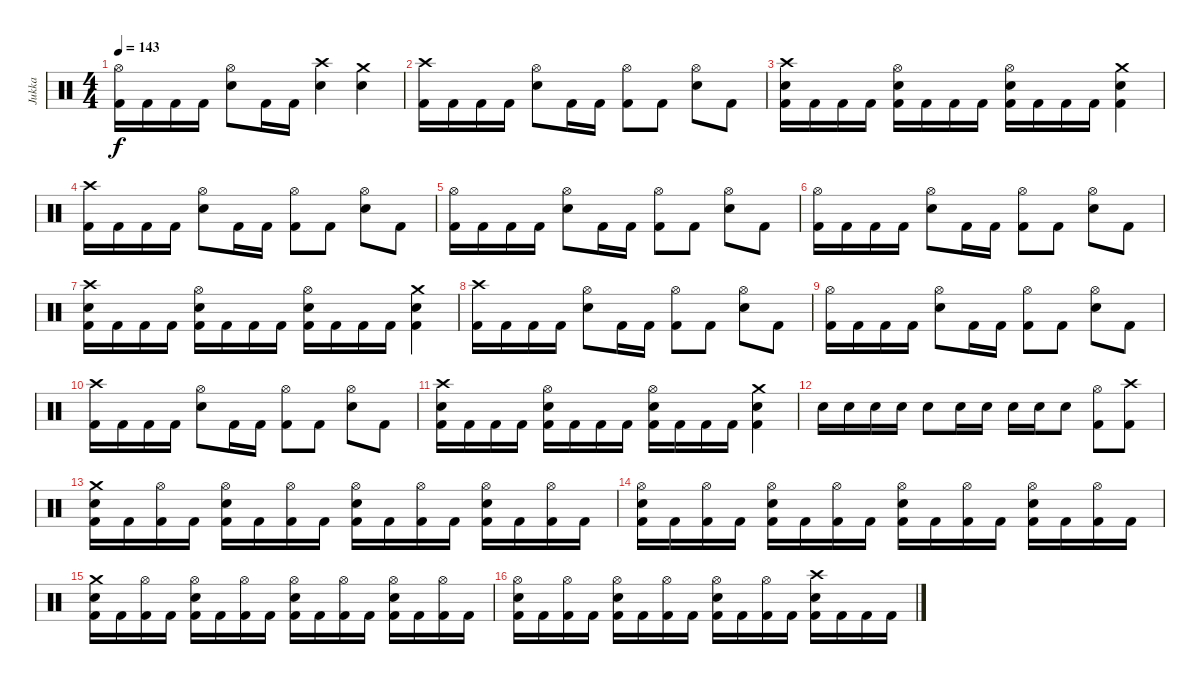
\track ("Jukka" "Jukka") {instrument percussion}
\staff {score}
\articulation defaults
\ts (4 4)
\tempo 143
\clef neutral
\ks c
("Hi-Hat (open)" "Kick (hit) 2").16{dy f} "Kick (hit) 2".16 "Kick (hit) 2".16 "Kick (hit) 2".16 ("Hi-Hat (open)" "Electric Snare (hit)").8 "Kick (hit) 2".16 "Kick (hit) 2".16 ("Crash high (hit)" "Electric Snare (hit)").4 ("Crash medium (hit)" "Electric Snare (hit)").4 |
("Crash high (hit)" "Kick (hit) 2").16 "Kick (hit) 2".16 "Kick (hit) 2".16 "Kick (hit) 2".16 ("Hi-Hat (open)" "Electric Snare (hit)").8 "Kick (hit) 2".16 "Kick (hit) 2".16 ("Hi-Hat (open)" "Kick (hit) 2").8 "Kick (hit) 2".8 ("Hi-Hat (open)" "Electric Snare (hit)").8 "Kick (hit) 2".8 |
("Crash high (hit)" "Electric Snare (hit)" "Kick (hit) 2").16 "Kick (hit) 2".16 "Kick (hit) 2".16 "Kick (hit) 2".16 ("Hi-Hat (open)" "Electric Snare (hit)" "Kick (hit) 2").16 "Kick (hit) 2".16 "Kick (hit) 2".16 "Kick (hit) 2".16 ("Hi-Hat (open)" "Electric Snare (hit)" "Kick (hit) 2").16 "Kick (hit) 2".16 "Kick (hit) 2".16 "Kick (hit) 2".16 ("Crash medium (hit)" "Electric Snare (hit)" "Kick (hit) 2").4 |
("Crash high (hit)" "Kick (hit) 2").16 "Kick (hit) 2".16 "Kick (hit) 2".16 "Kick (hit) 2".16 ("Hi-Hat (open)" "Electric Snare (hit)").8 "Kick (hit) 2".16 "Kick (hit) 2".16 ("Hi-Hat (open)" "Kick (hit) 2").8 "Kick (hit) 2".8 ("Hi-Hat (open)" "Electric Snare (hit)").8 "Kick (hit) 2".8 |
("Hi-Hat (open)" "Kick (hit) 2").16 "Kick (hit) 2".16 "Kick (hit) 2".16 "Kick (hit) 2".16 ("Hi-Hat (open)" "Electric Snare (hit)").8 "Kick (hit) 2".16 "Kick (hit) 2".16 ("Hi-Hat (open)" "Kick (hit) 2").8 "Kick (hit) 2".8 ("Hi-Hat (open)" "Electric Snare (hit)").8 "Kick (hit) 2".8 |
("Hi-Hat (open)" "Kick (hit) 2").16 "Kick (hit) 2".16 "Kick (hit) 2".16 "Kick (hit) 2".16 ("Hi-Hat (open)" "Electric Snare (hit)").8 "Kick (hit) 2".16 "Kick (hit) 2".16 ("Hi-Hat (open)" "Kick (hit) 2").8 "Kick (hit) 2".8 ("Hi-Hat (open)" "Electric Snare (hit)").8 "Kick (hit) 2".8 |
("Crash high (hit)" "Electric Snare (hit)" "Kick (hit) 2").16 "Kick (hit) 2".16 "Kick (hit) 2".16 "Kick (hit) 2".16 ("Hi-Hat (open)" "Electric Snare (hit)" "Kick (hit) 2").16 "Kick (hit) 2".16 "Kick (hit) 2".16 "Kick (hit) 2".16 ("Hi-Hat (open)" "Electric Snare (hit)" "Kick (hit) 2").16 "Kick (hit) 2".16 "Kick (hit) 2".16 "Kick (hit) 2".16 ("Crash medium (hit)" "Electric Snare (hit)" "Kick (hit) 2").4 |
("Crash high (hit)" "Kick (hit) 2").16 "Kick (hit) 2".16 "Kick (hit) 2".16 "Kick (hit) 2".16 ("Hi-Hat (open)" "Electric Snare (hit)").8 "Kick (hit) 2".16 "Kick (hit) 2".16 ("Hi-Hat (open)" "Kick (hit) 2").8 "Kick (hit) 2".8 ("Hi-Hat (open)" "Electric Snare (hit)").8 "Kick (hit) 2".8 |
("Hi-Hat (open)" "Kick (hit) 2").16 "Kick (hit) 2".16 "Kick (hit) 2".16 "Kick (hit) 2".16 ("Hi-Hat (open)" "Electric Snare (hit)").8 "Kick (hit) 2".16 "Kick (hit) 2".16 ("Hi-Hat (open)" "Kick (hit) 2").8 "Kick (hit) 2".8 ("Hi-Hat (open)" "Electric Snare (hit)").8 "Kick (hit) 2".8 |
("Crash high (hit)" "Kick (hit) 2").16 "Kick (hit) 2".16 "Kick (hit) 2".16 "Kick (hit) 2".16 ("Hi-Hat (open)" "Electric Snare (hit)").8 "Kick (hit) 2".16 "Kick (hit) 2".16 ("Hi-Hat (open)" "Kick (hit) 2").8 "Kick (hit) 2".8 ("Hi-Hat (open)" "Electric Snare (hit)").8 "Kick (hit) 2".8 |
("Crash high (hit)" "Electric Snare (hit)" "Kick (hit) 2").16 "Kick (hit) 2".16 "Kick (hit) 2".16 "Kick (hit) 2".16 ("Hi-Hat (open)" "Electric Snare (hit)" "Kick (hit) 2").16 "Kick (hit) 2".16 "Kick (hit) 2".16 "Kick (hit) 2".16 ("Hi-Hat (open)" "Electric Snare (hit)" "Kick (hit) 2").16 "Kick (hit) 2".16 "Kick (hit) 2".16 "Kick (hit) 2".16 ("Crash medium (hit)" "Electric Snare (hit)" "Kick (hit) 2").4 |
"Electric Snare (hit)".16 "Electric Snare (hit)".16 "Electric Snare (hit)".16 "Electric Snare (hit)".16 "Electric Snare (hit)".8 "Electric Snare (hit)".16 "Electric Snare (hit)".16 "Electric Snare (hit)".16 "Electric Snare (hit)".16 "Electric Snare (hit)".8 ("Hi-Hat (open)" "Kick (hit) 2").8 ("Crash high (hit)" "Kick (hit) 2").8 |
("Crash medium (hit)" "Electric Snare (hit)" "Kick (hit) 2").16 "Kick (hit) 2".16 ("Hi-Hat (open)" "Kick (hit) 2").16 "Kick (hit) 2".16 ("Hi-Hat (open)" "Electric Snare (hit)" "Kick (hit) 2").16 "Kick (hit) 2".16 ("Hi-Hat (open)" "Kick (hit) 2").16 "Kick (hit) 2".16 ("Hi-Hat (open)" "Electric Snare (hit)" "Kick (hit) 2").16 "Kick (hit) 2".16 ("Hi-Hat (open)" "Kick (hit) 2").16 "Kick (hit) 2".16 ("Hi-Hat (open)" "Electric Snare (hit)" "Kick (hit) 2").16 "Kick (hit) 2".16 ("Hi-Hat (open)" "Kick (hit) 2").16 "Kick (hit) 2".16 |
("Hi-Hat (open)" "Electric Snare (hit)" "Kick (hit) 2").16 "Kick (hit) 2".16 ("Hi-Hat (open)" "Kick (hit) 2").16 "Kick (hit) 2".16 ("Hi-Hat (open)" "Electric Snare (hit)" "Kick (hit) 2").16 "Kick (hit) 2".16 ("Hi-Hat (open)" "Kick (hit) 2").16 "Kick (hit) 2".16 ("Hi-Hat (open)" "Electric Snare (hit)" "Kick (hit) 2").16 "Kick (hit) 2".16 ("Hi-Hat (open)" "Kick (hit) 2").16 "Kick (hit) 2".16 ("Hi-Hat (open)" "Electric Snare (hit)" "Kick (hit) 2").16 "Kick (hit) 2".16 ("Hi-Hat (open)" "Kick (hit) 2").16 "Kick (hit) 2".16 |
("Crash medium (hit)" "Electric Snare (hit)" "Kick (hit) 2").16 "Kick (hit) 2".16 ("Hi-Hat (open)" "Kick (hit) 2").16 "Kick (hit) 2".16 ("Hi-Hat (open)" "Electric Snare (hit)" "Kick (hit) 2").16 "Kick (hit) 2".16 ("Hi-Hat (open)" "Kick (hit) 2").16 "Kick (hit) 2".16 ("Hi-Hat (open)" "Electric Snare (hit)" "Kick (hit) 2").16 "Kick (hit) 2".16 ("Hi-Hat (open)" "Kick (hit) 2").16 "Kick (hit) 2".16 ("Hi-Hat (open)" "Electric Snare (hit)" "Kick (hit) 2").16 "Kick (hit) 2".16 ("Hi-Hat (open)" "Kick (hit) 2").16 "Kick (hit) 2".16 |
("Hi-Hat (open)" "Electric Snare (hit)" "Kick (hit) 2").16 "Kick (hit) 2".16 ("Hi-Hat (open)" "Kick (hit) 2").16 "Kick (hit) 2".16 ("Hi-Hat (open)" "Electric Snare (hit)" "Kick (hit) 2").16 "Kick (hit) 2".16 ("Hi-Hat (open)" "Kick (hit) 2").16 "Kick (hit) 2".16 ("Hi-Hat (open)" "Electric Snare (hit)" "Kick (hit) 2").16 "Kick (hit) 2".16 ("Hi-Hat (open)" "Kick (hit) 2").16 "Kick (hit) 2".16 ("Crash high (hit)" "Electric Snare (hit)" "Kick (hit) 2").16 "Kick (hit) 2".16 "Kick (hit) 2".16 "Kick (hit) 2".16
